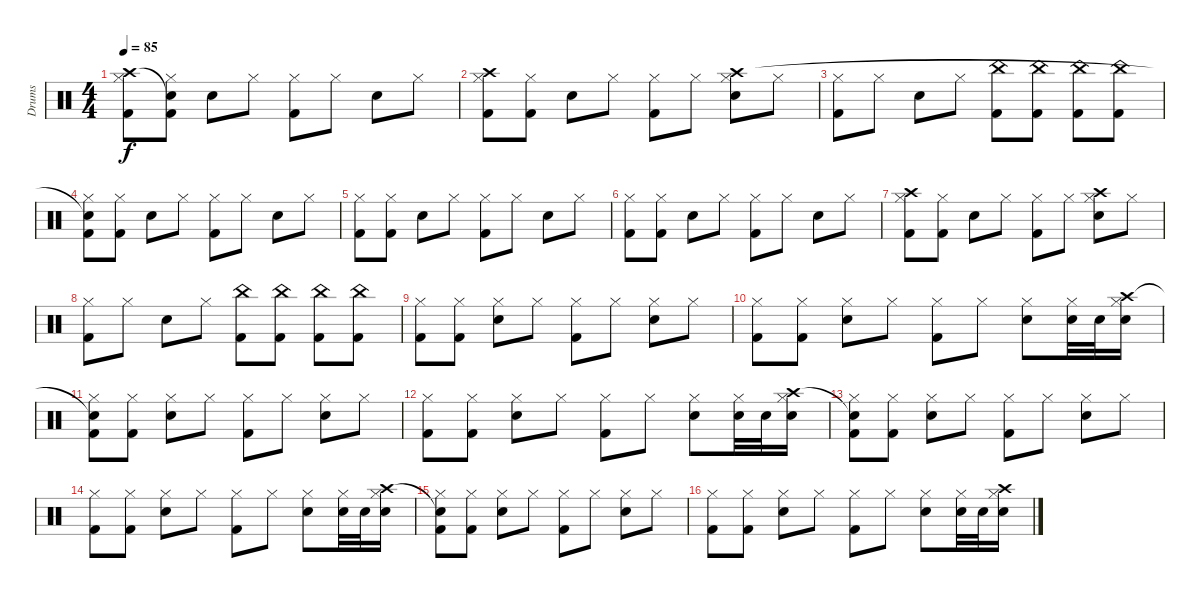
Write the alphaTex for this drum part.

\track ("Drums" "Drums") {instrument percussion}
\staff {score}
\articulation defaults
\ts (4 4)
\tempo 85
\clef neutral
\ks c
("Kick (hit) 2" "Hi-Hat (closed)" "Crash high (hit)").8{dy f} ("Kick (hit) 2" "Hi-Hat (closed)" "Snare (hit)"{t}).8 "Snare (hit) 2".8 "Hi-Hat (closed)".8 ("Kick (hit) 2" "Hi-Hat (closed)").8 "Hi-Hat (closed)".8 "Snare (hit) 2".8 "Hi-Hat (closed)".8 |
("Kick (hit) 2" "Hi-Hat (closed)" "Crash high (hit)").8 ("Kick (hit) 2" "Hi-Hat (closed)").8 "Snare (hit) 2".8 "Hi-Hat (closed)".8 ("Kick (hit) 2" "Hi-Hat (closed)").8 "Hi-Hat (closed)".8 ("Snare (hit) 2" "Hi-Hat (closed)" "Crash high (hit)").8 "Hi-Hat (closed)".8 |
("Kick (hit) 2" "Hi-Hat (closed)").8 "Hi-Hat (closed)".8 "Snare (hit) 2".8 "Hi-Hat (closed)".8 ("Kick (hit) 2" "China (hit)").8 ("Kick (hit) 2" "China (hit)").8 ("Kick (hit) 2" "China (hit)").8 ("Kick (hit) 2" "China (hit)").8 |
("Kick (hit) 2" "Hi-Hat (closed)" "Snare (hit)"{t}).8 ("Kick (hit) 2" "Hi-Hat (closed)").8 "Snare (hit) 2".8 "Hi-Hat (closed)".8 ("Kick (hit) 2" "Hi-Hat (closed)").8 "Hi-Hat (closed)".8 "Snare (hit) 2".8 "Hi-Hat (closed)".8 |
("Kick (hit) 2" "Hi-Hat (closed)").8 ("Kick (hit) 2" "Hi-Hat (closed)").8 "Snare (hit) 2".8 "Hi-Hat (closed)".8 ("Kick (hit) 2" "Hi-Hat (closed)").8 "Hi-Hat (closed)".8 "Snare (hit) 2".8 "Hi-Hat (closed)".8 |
("Kick (hit) 2" "Hi-Hat (closed)").8 ("Kick (hit) 2" "Hi-Hat (closed)").8 "Snare (hit) 2".8 "Hi-Hat (closed)".8 ("Kick (hit) 2" "Hi-Hat (closed)").8 "Hi-Hat (closed)".8 "Snare (hit) 2".8 "Hi-Hat (closed)".8 |
("Kick (hit) 2" "Hi-Hat (closed)" "Crash high (hit)").8 ("Kick (hit) 2" "Hi-Hat (closed)").8 "Snare (hit) 2".8 "Hi-Hat (closed)".8 ("Kick (hit) 2" "Hi-Hat (closed)").8 "Hi-Hat (closed)".8 ("Snare (hit) 2" "Hi-Hat (closed)" "Crash high (hit)").8 "Hi-Hat (closed)".8 |
("Kick (hit) 2" "Hi-Hat (closed)").8 "Hi-Hat (closed)".8 "Snare (hit) 2".8 "Hi-Hat (closed)".8 ("Kick (hit) 2" "China (hit)").8 ("Kick (hit) 2" "China (hit)").8 ("Kick (hit) 2" "China (hit)").8 ("Kick (hit) 2" "China (hit)").8 |
("Kick (hit) 2" "Hi-Hat (closed)").8 ("Kick (hit) 2" "Hi-Hat (closed)").8 ("Snare (hit) 2" "Hi-Hat (closed)").8 "Hi-Hat (closed)".8 ("Kick (hit) 2" "Hi-Hat (closed)").8 "Hi-Hat (closed)".8 ("Snare (hit) 2" "Hi-Hat (closed)").8 "Hi-Hat (closed)".8 |
("Kick (hit) 2" "Hi-Hat (closed)").8 ("Kick (hit) 2" "Hi-Hat (closed)").8 ("Snare (hit) 2" "Hi-Hat (closed)").8 "Hi-Hat (closed)".8 ("Kick (hit) 2" "Hi-Hat (closed)").8 "Hi-Hat (closed)".8 ("Snare (hit) 2" "Hi-Hat (closed)").8 ("Snare (hit) 2" "Hi-Hat (closed)").32 "Snare (hit) 2".32 ("Snare (hit) 2" "Hi-Hat (closed)" "Crash high (hit)").16 |
("Kick (hit) 2" "Hi-Hat (closed)" "Snare (hit)"{t}).8 ("Kick (hit) 2" "Hi-Hat (closed)").8 ("Snare (hit) 2" "Hi-Hat (closed)").8 "Hi-Hat (closed)".8 ("Kick (hit) 2" "Hi-Hat (closed)").8 "Hi-Hat (closed)".8 ("Snare (hit) 2" "Hi-Hat (closed)").8 "Hi-Hat (closed)".8 |
("Kick (hit) 2" "Hi-Hat (closed)").8 ("Kick (hit) 2" "Hi-Hat (closed)").8 ("Snare (hit) 2" "Hi-Hat (closed)").8 "Hi-Hat (closed)".8 ("Kick (hit) 2" "Hi-Hat (closed)").8 "Hi-Hat (closed)".8 ("Snare (hit) 2" "Hi-Hat (closed)").8 ("Snare (hit) 2" "Hi-Hat (closed)").32 "Snare (hit) 2".32 ("Snare (hit) 2" "Hi-Hat (closed)" "Crash high (hit)").16 |
("Kick (hit) 2" "Hi-Hat (closed)" "Snare (hit)"{t}).8 ("Kick (hit) 2" "Hi-Hat (closed)").8 ("Snare (hit) 2" "Hi-Hat (closed)").8 "Hi-Hat (closed)".8 ("Kick (hit) 2" "Hi-Hat (closed)").8 "Hi-Hat (closed)".8 ("Snare (hit) 2" "Hi-Hat (closed)").8 "Hi-Hat (closed)".8 |
("Kick (hit) 2" "Hi-Hat (closed)").8 ("Kick (hit) 2" "Hi-Hat (closed)").8 ("Snare (hit) 2" "Hi-Hat (closed)").8 "Hi-Hat (closed)".8 ("Kick (hit) 2" "Hi-Hat (closed)").8 "Hi-Hat (closed)".8 ("Snare (hit) 2" "Hi-Hat (closed)").8 ("Snare (hit) 2" "Hi-Hat (closed)").32 "Snare (hit) 2".32 ("Snare (hit) 2" "Hi-Hat (closed)" "Crash high (hit)").16 |
("Kick (hit) 2" "Hi-Hat (closed)" "Snare (hit)"{t}).8 ("Kick (hit) 2" "Hi-Hat (closed)").8 ("Snare (hit) 2" "Hi-Hat (closed)").8 "Hi-Hat (closed)".8 ("Kick (hit) 2" "Hi-Hat (closed)").8 "Hi-Hat (closed)".8 ("Snare (hit) 2" "Hi-Hat (closed)").8 "Hi-Hat (closed)".8 |
("Kick (hit) 2" "Hi-Hat (closed)").8 ("Kick (hit) 2" "Hi-Hat (closed)").8 ("Snare (hit) 2" "Hi-Hat (closed)").8 "Hi-Hat (closed)".8 ("Kick (hit) 2" "Hi-Hat (closed)").8 "Hi-Hat (closed)".8 ("Snare (hit) 2" "Hi-Hat (closed)").8 ("Snare (hit) 2" "Hi-Hat (closed)").32 "Snare (hit) 2".32 ("Snare (hit) 2" "Hi-Hat (closed)" "Crash high (hit)").16
